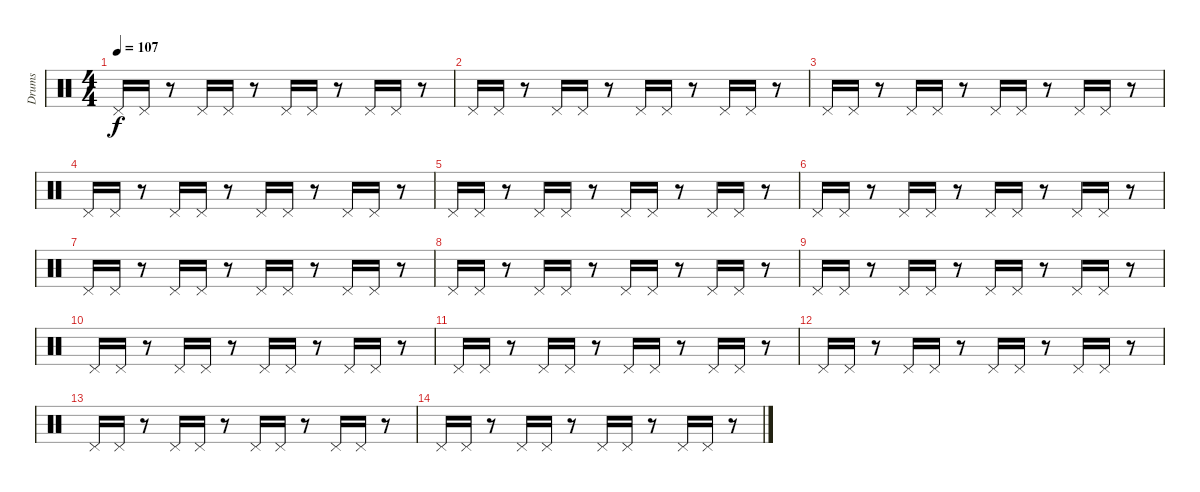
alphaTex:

\track ("Drums" "Drums") {instrument percussion}
\staff {score}
\articulation defaults
\ts (4 4)
\tempo 107
\clef neutral
\ks c "Pedal Hi-Hat (hit)".16{dy f} "Pedal Hi-Hat (hit)".16
r.8 "Pedal Hi-Hat (hit)".16 "Pedal Hi-Hat (hit)".16 r.8 "Pedal Hi-Hat (hit)".16 "Pedal Hi-Hat (hit)".16 r.8 "Pedal Hi-Hat (hit)".16 "Pedal Hi-Hat (hit)".16 r.8 |
"Pedal Hi-Hat (hit)".16 "Pedal Hi-Hat (hit)".16 r.8 "Pedal Hi-Hat (hit)".16 "Pedal Hi-Hat (hit)".16 r.8 "Pedal Hi-Hat (hit)".16 "Pedal Hi-Hat (hit)".16 r.8 "Pedal Hi-Hat (hit)".16 "Pedal Hi-Hat (hit)".16 r.8 |
"Pedal Hi-Hat (hit)".16 "Pedal Hi-Hat (hit)".16 r.8 "Pedal Hi-Hat (hit)".16 "Pedal Hi-Hat (hit)".16 r.8 "Pedal Hi-Hat (hit)".16 "Pedal Hi-Hat (hit)".16 r.8 "Pedal Hi-Hat (hit)".16 "Pedal Hi-Hat (hit)".16 r.8 |
"Pedal Hi-Hat (hit)".16 "Pedal Hi-Hat (hit)".16 r.8 "Pedal Hi-Hat (hit)".16 "Pedal Hi-Hat (hit)".16 r.8 "Pedal Hi-Hat (hit)".16 "Pedal Hi-Hat (hit)".16 r.8 "Pedal Hi-Hat (hit)".16 "Pedal Hi-Hat (hit)".16 r.8 |
"Pedal Hi-Hat (hit)".16 "Pedal Hi-Hat (hit)".16 r.8 "Pedal Hi-Hat (hit)".16 "Pedal Hi-Hat (hit)".16 r.8 "Pedal Hi-Hat (hit)".16 "Pedal Hi-Hat (hit)".16 r.8 "Pedal Hi-Hat (hit)".16 "Pedal Hi-Hat (hit)".16 r.8 |
"Pedal Hi-Hat (hit)".16 "Pedal Hi-Hat (hit)".16 r.8 "Pedal Hi-Hat (hit)".16 "Pedal Hi-Hat (hit)".16 r.8 "Pedal Hi-Hat (hit)".16 "Pedal Hi-Hat (hit)".16 r.8 "Pedal Hi-Hat (hit)".16 "Pedal Hi-Hat (hit)".16 r.8 |
"Pedal Hi-Hat (hit)".16 "Pedal Hi-Hat (hit)".16 r.8 "Pedal Hi-Hat (hit)".16 "Pedal Hi-Hat (hit)".16 r.8 "Pedal Hi-Hat (hit)".16 "Pedal Hi-Hat (hit)".16 r.8 "Pedal Hi-Hat (hit)".16 "Pedal Hi-Hat (hit)".16 r.8 |
"Pedal Hi-Hat (hit)".16 "Pedal Hi-Hat (hit)".16 r.8 "Pedal Hi-Hat (hit)".16 "Pedal Hi-Hat (hit)".16 r.8 "Pedal Hi-Hat (hit)".16 "Pedal Hi-Hat (hit)".16 r.8 "Pedal Hi-Hat (hit)".16 "Pedal Hi-Hat (hit)".16 r.8 |
"Pedal Hi-Hat (hit)".16 "Pedal Hi-Hat (hit)".16 r.8 "Pedal Hi-Hat (hit)".16 "Pedal Hi-Hat (hit)".16 r.8 "Pedal Hi-Hat (hit)".16 "Pedal Hi-Hat (hit)".16 r.8 "Pedal Hi-Hat (hit)".16 "Pedal Hi-Hat (hit)".16 r.8 |
"Pedal Hi-Hat (hit)".16 "Pedal Hi-Hat (hit)".16 r.8 "Pedal Hi-Hat (hit)".16 "Pedal Hi-Hat (hit)".16 r.8 "Pedal Hi-Hat (hit)".16 "Pedal Hi-Hat (hit)".16 r.8 "Pedal Hi-Hat (hit)".16 "Pedal Hi-Hat (hit)".16 r.8 |
"Pedal Hi-Hat (hit)".16 "Pedal Hi-Hat (hit)".16 r.8 "Pedal Hi-Hat (hit)".16 "Pedal Hi-Hat (hit)".16 r.8 "Pedal Hi-Hat (hit)".16 "Pedal Hi-Hat (hit)".16 r.8 "Pedal Hi-Hat (hit)".16 "Pedal Hi-Hat (hit)".16 r.8 |
"Pedal Hi-Hat (hit)".16 "Pedal Hi-Hat (hit)".16 r.8 "Pedal Hi-Hat (hit)".16 "Pedal Hi-Hat (hit)".16 r.8 "Pedal Hi-Hat (hit)".16 "Pedal Hi-Hat (hit)".16 r.8 "Pedal Hi-Hat (hit)".16 "Pedal Hi-Hat (hit)".16 r.8 |
"Pedal Hi-Hat (hit)".16 "Pedal Hi-Hat (hit)".16 r.8 "Pedal Hi-Hat (hit)".16 "Pedal Hi-Hat (hit)".16 r.8 "Pedal Hi-Hat (hit)".16 "Pedal Hi-Hat (hit)".16 r.8 "Pedal Hi-Hat (hit)".16 "Pedal Hi-Hat (hit)".16 r.8 |
"Pedal Hi-Hat (hit)".16 "Pedal Hi-Hat (hit)".16 r.8 "Pedal Hi-Hat (hit)".16 "Pedal Hi-Hat (hit)".16 r.8 "Pedal Hi-Hat (hit)".16 "Pedal Hi-Hat (hit)".16 r.8 "Pedal Hi-Hat (hit)".16 "Pedal Hi-Hat (hit)".16 r.8
